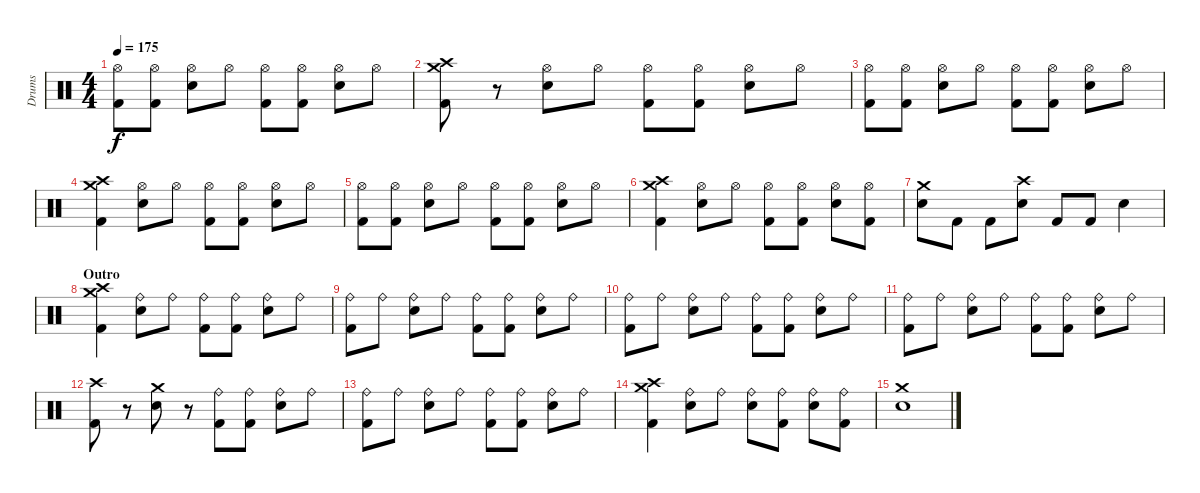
\track ("Drums" "Drums") {instrument percussion}
\staff {score}
\articulation defaults
\ts (4 4)
\tempo 175
\clef neutral
\ks c
("Hi-Hat (open)" "Kick (hit) 2").8{dy f} ("Hi-Hat (open)" "Kick (hit) 2").8 ("Hi-Hat (open)" "Electric Snare (hit)").8 "Hi-Hat (open)".8 ("Hi-Hat (open)" "Kick (hit) 2").8 ("Hi-Hat (open)" "Kick (hit) 2").8 ("Hi-Hat (open)" "Electric Snare (hit)").8 "Hi-Hat (open)".8 |
("Crash high (hit)" "Crash medium (hit)" "Kick (hit) 2").8 r.8 ("Hi-Hat (open)" "Electric Snare (hit)").8 "Hi-Hat (open)".8 ("Hi-Hat (open)" "Kick (hit) 2").8 ("Hi-Hat (open)" "Kick (hit) 2").8 ("Hi-Hat (open)" "Electric Snare (hit)").8 "Hi-Hat (open)".8 |
("Hi-Hat (open)" "Kick (hit) 2").8 ("Hi-Hat (open)" "Kick (hit) 2").8 ("Hi-Hat (open)" "Electric Snare (hit)").8 "Hi-Hat (open)".8 ("Hi-Hat (open)" "Kick (hit) 2").8 ("Hi-Hat (open)" "Kick (hit) 2").8 ("Hi-Hat (open)" "Electric Snare (hit)").8 "Hi-Hat (open)".8 |
("Crash high (hit)" "Crash medium (hit)" "Kick (hit) 2").4 ("Hi-Hat (open)" "Electric Snare (hit)").8 "Hi-Hat (open)".8 ("Hi-Hat (open)" "Kick (hit) 2").8 ("Hi-Hat (open)" "Kick (hit) 2").8 ("Hi-Hat (open)" "Electric Snare (hit)").8 "Hi-Hat (open)".8 |
("Hi-Hat (open)" "Kick (hit) 2").8 ("Hi-Hat (open)" "Kick (hit) 2").8 ("Hi-Hat (open)" "Electric Snare (hit)").8 "Hi-Hat (open)".8 ("Hi-Hat (open)" "Kick (hit) 2").8 ("Hi-Hat (open)" "Kick (hit) 2").8 ("Hi-Hat (open)" "Electric Snare (hit)").8 "Hi-Hat (open)".8 |
("Crash high (hit)" "Crash medium (hit)" "Kick (hit) 2").4 ("Hi-Hat (open)" "Electric Snare (hit)").8 "Hi-Hat (open)".8 ("Hi-Hat (open)" "Kick (hit) 2").8 ("Hi-Hat (open)" "Kick (hit) 2").8 ("Hi-Hat (open)" "Electric Snare (hit)").8 ("Hi-Hat (open)" "Kick (hit) 2").8 |
("Crash medium (hit)" "Electric Snare (hit)").8 "Kick (hit) 2".8 "Kick (hit) 2".8 ("Crash high (hit)" "Electric Snare (hit)").8 "Kick (hit) 2".8 "Kick (hit) 2".8 "Electric Snare (hit)".4 |
\section ("" "Outro")
("Crash high (hit)" "Crash medium (hit)" "Kick (hit) 2").4 ("Ride (bell)" "Electric Snare (hit)").8 "Ride (bell)".8 ("Ride (bell)" "Kick (hit) 2").8 ("Ride (bell)" "Kick (hit) 2").8 ("Ride (bell)" "Electric Snare (hit)").8 "Ride (bell)".8 |
("Ride (bell)" "Kick (hit) 2").8 "Ride (bell)".8 ("Ride (bell)" "Electric Snare (hit)").8 "Ride (bell)".8 ("Ride (bell)" "Kick (hit) 2").8 ("Ride (bell)" "Kick (hit) 2").8 ("Ride (bell)" "Electric Snare (hit)").8 "Ride (bell)".8 |
("Ride (bell)" "Kick (hit) 2").8 "Ride (bell)".8 ("Ride (bell)" "Electric Snare (hit)").8 "Ride (bell)".8 ("Ride (bell)" "Kick (hit) 2").8 ("Ride (bell)" "Kick (hit) 2").8 ("Ride (bell)" "Electric Snare (hit)").8 "Ride (bell)".8 |
("Ride (bell)" "Kick (hit) 2").8 "Ride (bell)".8 ("Ride (bell)" "Electric Snare (hit)").8 "Ride (bell)".8 ("Ride (bell)" "Kick (hit) 2").8 ("Ride (bell)" "Kick (hit) 2").8 ("Ride (bell)" "Electric Snare (hit)").8 "Ride (bell)".8 |
("Crash high (hit)" "Kick (hit) 2").8 r.8 ("Crash medium (hit)" "Electric Snare (hit)").8 r.8 ("Ride (bell)" "Kick (hit) 2").8 ("Ride (bell)" "Kick (hit) 2").8 ("Ride (bell)" "Electric Snare (hit)").8 "Ride (bell)".8 |
("Ride (bell)" "Kick (hit) 2").8 "Ride (bell)".8 ("Ride (bell)" "Electric Snare (hit)").8 "Ride (bell)".8 ("Ride (bell)" "Kick (hit) 2").8 ("Ride (bell)" "Kick (hit) 2").8 ("Ride (bell)" "Electric Snare (hit)").8 "Ride (bell)".8 |
("Crash high (hit)" "Crash medium (hit)" "Kick (hit) 2").4 ("Ride (bell)" "Electric Snare (hit)").8 "Ride (bell)".8 ("Ride (bell)" "Electric Snare (hit)").8 ("Ride (bell)" "Kick (hit) 2").8 ("Ride (bell)" "Electric Snare (hit)").8 ("Ride (bell)" "Kick (hit) 2").8 |
("Crash medium (hit)" "Electric Snare (hit)").1
